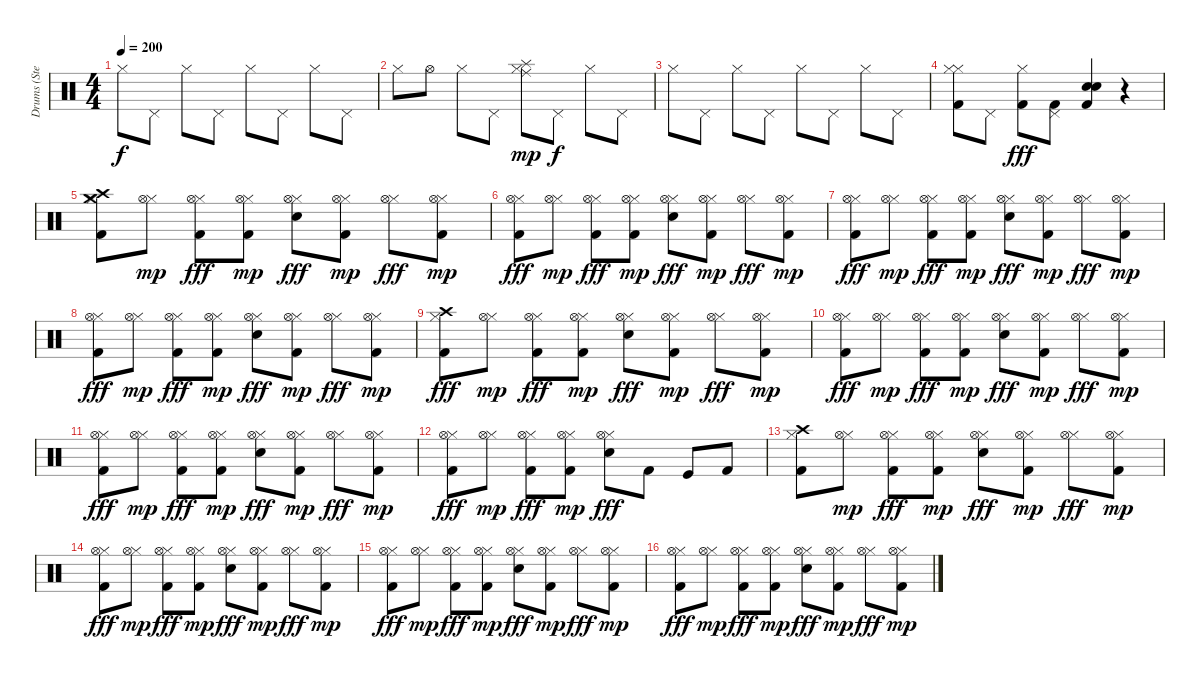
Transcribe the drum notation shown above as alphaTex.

\track ("Drums (Stevo32)" "Drums (Ste") {instrument percussion}
\staff {score}
\articulation defaults
\ts (4 4)
\tempo 200
\clef neutral
\ks c "Hi-Hat (closed)".8{dy f} "Pedal Hi-Hat (hit)".8 "Hi-Hat (closed)".8 "Pedal Hi-Hat (hit)".8 "Hi-Hat (closed)".8 "Pedal Hi-Hat (hit)".8 "Hi-Hat (closed)".8 "Pedal Hi-Hat (hit)".8
|
"Hi-Hat (closed)".8 "Hi-Hat (open)".8 "Hi-Hat (closed)".8 "Pedal Hi-Hat (hit)".8 ("Hi-Hat (closed)" "Ride (middle)" "Splash (hit)").8{dy mp} "Pedal Hi-Hat (hit)".8{dy f} "Hi-Hat (closed)".8 "Pedal Hi-Hat (hit)".8 |
"Hi-Hat (closed)".8 "Pedal Hi-Hat (hit)".8 "Hi-Hat (closed)".8 "Pedal Hi-Hat (hit)".8 "Hi-Hat (closed)".8 "Pedal Hi-Hat (hit)".8 "Hi-Hat (closed)".8 "Pedal Hi-Hat (hit)".8 |
("Kick (hit) 2" "Hi-Hat (closed)" "Hi-Hat (closed)").8 "Pedal Hi-Hat (hit)".8 ("Kick (hit) 2" "Hi-Hat (closed)").8{dy fff} ("Kick (hit) 2" "Pedal Hi-Hat (hit)").8 ("Kick (hit) 2" "Electric Snare (hit)" "Electric Snare (hit)").4 r.4 |
("Kick (hit) 2" "Hi-Hat (closed)" "Crash high (hit)" "Crash medium (hit)").8 ("Hi-Hat (closed)" "Hi-Hat (open)").8{dy mp} ("Kick (hit) 2" "Hi-Hat (closed)" "Hi-Hat (open)").8{dy fff} ("Kick (hit) 2" "Hi-Hat (closed)" "Hi-Hat (open)").8{dy mp} ("Electric Snare (hit)" "Hi-Hat (closed)" "Hi-Hat (open)").8{dy fff} ("Kick (hit) 2" "Hi-Hat (closed)" "Hi-Hat (open)").8{dy mp} ("Hi-Hat (closed)" "Hi-Hat (open)").8{dy fff} ("Kick (hit) 2" "Hi-Hat (closed)" "Hi-Hat (open)").8{dy mp} |
("Kick (hit) 2" "Hi-Hat (closed)" "Hi-Hat (open)").8{dy fff} ("Hi-Hat (closed)" "Hi-Hat (open)").8{dy mp} ("Kick (hit) 2" "Hi-Hat (closed)" "Hi-Hat (open)").8{dy fff} ("Kick (hit) 2" "Hi-Hat (closed)" "Hi-Hat (open)").8{dy mp} ("Electric Snare (hit)" "Hi-Hat (closed)" "Hi-Hat (open)").8{dy fff} ("Kick (hit) 2" "Hi-Hat (closed)" "Hi-Hat (open)").8{dy mp} ("Hi-Hat (closed)" "Hi-Hat (open)").8{dy fff} ("Kick (hit) 2" "Hi-Hat (closed)" "Hi-Hat (open)").8{dy mp} |
("Kick (hit) 2" "Hi-Hat (closed)" "Hi-Hat (open)").8{dy fff} ("Hi-Hat (closed)" "Hi-Hat (open)").8{dy mp} ("Kick (hit) 2" "Hi-Hat (closed)" "Hi-Hat (open)").8{dy fff} ("Kick (hit) 2" "Hi-Hat (closed)" "Hi-Hat (open)").8{dy mp} ("Electric Snare (hit)" "Hi-Hat (closed)" "Hi-Hat (open)").8{dy fff} ("Kick (hit) 2" "Hi-Hat (closed)" "Hi-Hat (open)").8{dy mp} ("Hi-Hat (closed)" "Hi-Hat (open)").8{dy fff} ("Kick (hit) 2" "Hi-Hat (closed)" "Hi-Hat (open)").8{dy mp} |
("Kick (hit) 2" "Hi-Hat (closed)" "Hi-Hat (open)").8{dy fff} ("Hi-Hat (closed)" "Hi-Hat (open)").8{dy mp} ("Kick (hit) 2" "Hi-Hat (closed)" "Hi-Hat (open)").8{dy fff} ("Kick (hit) 2" "Hi-Hat (closed)" "Hi-Hat (open)").8{dy mp} ("Electric Snare (hit)" "Hi-Hat (closed)" "Hi-Hat (open)").8{dy fff} ("Kick (hit) 2" "Hi-Hat (closed)" "Hi-Hat (open)").8{dy mp} ("Hi-Hat (closed)" "Hi-Hat (open)").8{dy fff} ("Kick (hit) 2" "Hi-Hat (closed)" "Hi-Hat (open)").8{dy mp} |
("Kick (hit) 2" "Hi-Hat (closed)" "Crash high (hit)").8{dy fff} ("Hi-Hat (closed)" "Hi-Hat (open)").8{dy mp} ("Kick (hit) 2" "Hi-Hat (closed)" "Hi-Hat (open)").8{dy fff} ("Kick (hit) 2" "Hi-Hat (closed)" "Hi-Hat (open)").8{dy mp} ("Electric Snare (hit)" "Hi-Hat (closed)" "Hi-Hat (open)").8{dy fff} ("Kick (hit) 2" "Hi-Hat (closed)" "Hi-Hat (open)").8{dy mp} ("Hi-Hat (closed)" "Hi-Hat (open)").8{dy fff} ("Kick (hit) 2" "Hi-Hat (closed)" "Hi-Hat (open)").8{dy mp} |
("Kick (hit) 2" "Hi-Hat (closed)" "Hi-Hat (open)").8{dy fff} ("Hi-Hat (closed)" "Hi-Hat (open)").8{dy mp} ("Kick (hit) 2" "Hi-Hat (closed)" "Hi-Hat (open)").8{dy fff} ("Kick (hit) 2" "Hi-Hat (closed)" "Hi-Hat (open)").8{dy mp} ("Electric Snare (hit)" "Hi-Hat (closed)" "Hi-Hat (open)").8{dy fff} ("Kick (hit) 2" "Hi-Hat (closed)" "Hi-Hat (open)").8{dy mp} ("Hi-Hat (closed)" "Hi-Hat (open)").8{dy fff} ("Kick (hit) 2" "Hi-Hat (closed)" "Hi-Hat (open)").8{dy mp} |
("Kick (hit) 2" "Hi-Hat (closed)" "Hi-Hat (open)").8{dy fff} ("Hi-Hat (closed)" "Hi-Hat (open)").8{dy mp} ("Kick (hit) 2" "Hi-Hat (closed)" "Hi-Hat (open)").8{dy fff} ("Kick (hit) 2" "Hi-Hat (closed)" "Hi-Hat (open)").8{dy mp} ("Electric Snare (hit)" "Hi-Hat (closed)" "Hi-Hat (open)").8{dy fff} ("Kick (hit) 2" "Hi-Hat (closed)" "Hi-Hat (open)").8{dy mp} ("Hi-Hat (closed)" "Hi-Hat (open)").8{dy fff} ("Kick (hit) 2" "Hi-Hat (closed)" "Hi-Hat (open)").8{dy mp} |
("Kick (hit) 2" "Hi-Hat (closed)" "Hi-Hat (open)").8{dy fff} ("Hi-Hat (closed)" "Hi-Hat (open)").8{dy mp} ("Kick (hit) 2" "Hi-Hat (closed)" "Hi-Hat (open)").8{dy fff} ("Kick (hit) 2" "Hi-Hat (closed)" "Hi-Hat (open)").8{dy mp} ("Electric Snare (hit)" "Hi-Hat (closed)" "Hi-Hat (open)").8{dy fff} "Kick (hit) 2".8 "Kick (hit)".8 "Kick (hit) 2".8 |
("Kick (hit) 2" "Hi-Hat (closed)" "Crash high (hit)").8 ("Hi-Hat (closed)" "Hi-Hat (open)").8{dy mp} ("Kick (hit) 2" "Hi-Hat (closed)" "Hi-Hat (open)").8{dy fff} ("Kick (hit) 2" "Hi-Hat (closed)" "Hi-Hat (open)").8{dy mp} ("Electric Snare (hit)" "Hi-Hat (closed)" "Hi-Hat (open)").8{dy fff} ("Kick (hit) 2" "Hi-Hat (closed)" "Hi-Hat (open)").8{dy mp} ("Hi-Hat (closed)" "Hi-Hat (open)").8{dy fff} ("Kick (hit) 2" "Hi-Hat (closed)" "Hi-Hat (open)").8{dy mp} |
("Kick (hit) 2" "Hi-Hat (closed)" "Hi-Hat (open)").8{dy fff} ("Hi-Hat (closed)" "Hi-Hat (open)").8{dy mp} ("Kick (hit) 2" "Hi-Hat (closed)" "Hi-Hat (open)").8{dy fff} ("Kick (hit) 2" "Hi-Hat (closed)" "Hi-Hat (open)").8{dy mp} ("Electric Snare (hit)" "Hi-Hat (closed)" "Hi-Hat (open)").8{dy fff} ("Kick (hit) 2" "Hi-Hat (closed)" "Hi-Hat (open)").8{dy mp} ("Hi-Hat (closed)" "Hi-Hat (open)").8{dy fff} ("Kick (hit) 2" "Hi-Hat (closed)" "Hi-Hat (open)").8{dy mp} |
("Kick (hit) 2" "Hi-Hat (closed)" "Hi-Hat (open)").8{dy fff} ("Hi-Hat (closed)" "Hi-Hat (open)").8{dy mp} ("Kick (hit) 2" "Hi-Hat (closed)" "Hi-Hat (open)").8{dy fff} ("Kick (hit) 2" "Hi-Hat (closed)" "Hi-Hat (open)").8{dy mp} ("Electric Snare (hit)" "Hi-Hat (closed)" "Hi-Hat (open)").8{dy fff} ("Kick (hit) 2" "Hi-Hat (closed)" "Hi-Hat (open)").8{dy mp} ("Hi-Hat (closed)" "Hi-Hat (open)").8{dy fff} ("Kick (hit) 2" "Hi-Hat (closed)" "Hi-Hat (open)").8{dy mp} |
("Kick (hit) 2" "Hi-Hat (closed)" "Hi-Hat (open)").8{dy fff} ("Hi-Hat (closed)" "Hi-Hat (open)").8{dy mp} ("Kick (hit) 2" "Hi-Hat (closed)" "Hi-Hat (open)").8{dy fff} ("Kick (hit) 2" "Hi-Hat (closed)" "Hi-Hat (open)").8{dy mp} ("Electric Snare (hit)" "Hi-Hat (closed)" "Hi-Hat (open)").8{dy fff} ("Kick (hit) 2" "Hi-Hat (closed)" "Hi-Hat (open)").8{dy mp} ("Hi-Hat (closed)" "Hi-Hat (open)").8{dy fff} ("Kick (hit) 2" "Hi-Hat (closed)" "Hi-Hat (open)").8{dy mp}
